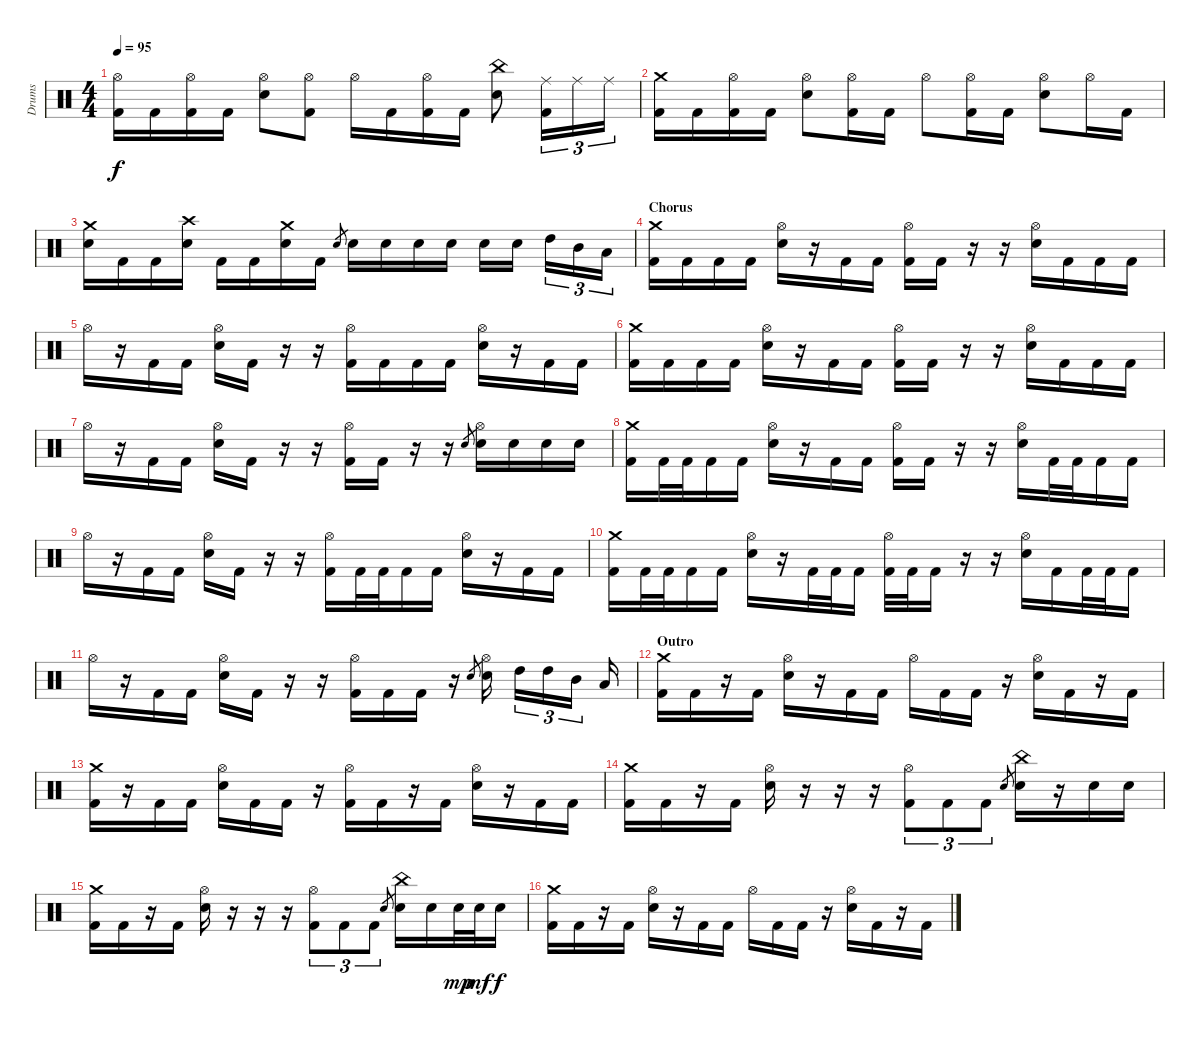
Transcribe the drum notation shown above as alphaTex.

\track ("Drums" "Drums") {instrument percussion}
\staff {score}
\articulation defaults
\ts (4 4)
\tempo 95
\clef neutral
\ks c
("Hi-Hat (open)" "Kick (hit) 2").16{dy f} "Kick (hit) 2".16 ("Hi-Hat (open)" "Kick (hit) 2").16 "Kick (hit) 2".16 ("Hi-Hat (open)" "Snare (hit) 2").8 ("Hi-Hat (open)" "Kick (hit) 2").8 "Hi-Hat (open)".16 "Kick (hit) 2".16 ("Hi-Hat (open)" "Kick (hit) 2").16 "Kick (hit) 2".16 ("China (hit)" "Snare (hit) 2").8 ("Ride (middle)" "Kick (hit) 2").16{tu (3 2)} "Ride (middle)".16{tu (3 2)} "Ride (middle)".16{tu (3 2)} |
("Crash medium (hit)" "Kick (hit) 2").16 "Kick (hit) 2".16 ("Hi-Hat (open)" "Kick (hit) 2").16 "Kick (hit) 2".16 ("Hi-Hat (open)" "Snare (hit) 2").8 ("Hi-Hat (open)" "Kick (hit) 2").16 "Kick (hit) 2".16 "Hi-Hat (open)".8 ("Hi-Hat (open)" "Kick (hit) 2").16 "Kick (hit) 2".16 ("Hi-Hat (open)" "Snare (hit) 2").8 "Hi-Hat (open)".16 "Kick (hit) 2".16 |
("Crash medium (hit)" "Snare (hit) 2").16 "Kick (hit) 2".16 "Kick (hit) 2".16 ("Crash high (hit)" "Snare (hit) 2").16 "Kick (hit) 2".16 "Kick (hit) 2".16 ("Crash medium (hit)" "Snare (hit) 2").16 "Kick (hit) 2".16 "Snare (hit) 2".8{gr} "Snare (hit) 2".16 "Snare (hit) 2".16 "Snare (hit) 2".16 "Snare (hit) 2".16 "Snare (hit) 2".16 "Snare (hit) 2".16 "High Tom (hit)".16{tu (3 2)} "Mid Tom (hit)".16{tu (3 2)} "Low Tom (hit)".16{tu (3 2)} |
\section ("" "Chorus")
("Crash medium (hit)" "Kick (hit) 2").16 "Kick (hit) 2".16 "Kick (hit) 2".16 "Kick (hit) 2".16 ("Hi-Hat (open)" "Snare (hit) 2").16 r.16 "Kick (hit) 2".16 "Kick (hit) 2".16 ("Hi-Hat (open)" "Kick (hit) 2").16 "Kick (hit) 2".16 r.16 r.16 ("Hi-Hat (open)" "Snare (hit) 2").16 "Kick (hit) 2".16 "Kick (hit) 2".16 "Kick (hit) 2".16 |
"Hi-Hat (open)".16 r.16 "Kick (hit) 2".16 "Kick (hit) 2".16 ("Hi-Hat (open)" "Snare (hit) 2").16 "Kick (hit) 2".16 r.16 r.16 ("Hi-Hat (open)" "Kick (hit) 2").16 "Kick (hit) 2".16 "Kick (hit) 2".16 "Kick (hit) 2".16 ("Hi-Hat (open)" "Snare (hit) 2").16 r.16 "Kick (hit) 2".16 "Kick (hit) 2".16 |
("Crash medium (hit)" "Kick (hit) 2").16 "Kick (hit) 2".16 "Kick (hit) 2".16 "Kick (hit) 2".16 ("Hi-Hat (open)" "Snare (hit) 2").16 r.16 "Kick (hit) 2".16 "Kick (hit) 2".16 ("Hi-Hat (open)" "Kick (hit) 2").16 "Kick (hit) 2".16 r.16 r.16 ("Hi-Hat (open)" "Snare (hit) 2").16 "Kick (hit) 2".16 "Kick (hit) 2".16 "Kick (hit) 2".16 |
"Hi-Hat (open)".16 r.16 "Kick (hit) 2".16 "Kick (hit) 2".16 ("Hi-Hat (open)" "Snare (hit) 2").16 "Kick (hit) 2".16 r.16 r.16 ("Hi-Hat (open)" "Kick (hit) 2").16 "Kick (hit) 2".16 r.16 r.16 "Snare (hit) 2".8{gr} ("Hi-Hat (open)" "Snare (hit) 2").16 "Snare (hit) 2".16 "Snare (hit) 2".16 "Snare (hit) 2".16 |
("Crash medium (hit)" "Kick (hit) 2").16 "Kick (hit) 2".32 "Kick (hit) 2".32 "Kick (hit) 2".16 "Kick (hit) 2".16 ("Hi-Hat (open)" "Snare (hit) 2").16 r.16 "Kick (hit) 2".16 "Kick (hit) 2".16 ("Hi-Hat (open)" "Kick (hit) 2").16 "Kick (hit) 2".16 r.16 r.16 ("Hi-Hat (open)" "Snare (hit) 2").16 "Kick (hit) 2".32 "Kick (hit) 2".32 "Kick (hit) 2".16 "Kick (hit) 2".16 |
"Hi-Hat (open)".16 r.16 "Kick (hit) 2".16 "Kick (hit) 2".16 ("Hi-Hat (open)" "Snare (hit) 2").16 "Kick (hit) 2".16 r.16 r.16 ("Hi-Hat (open)" "Kick (hit) 2").16 "Kick (hit) 2".32 "Kick (hit) 2".32 "Kick (hit) 2".16 "Kick (hit) 2".16 ("Hi-Hat (open)" "Snare (hit) 2").16 r.16 "Kick (hit) 2".16 "Kick (hit) 2".16 |
("Crash medium (hit)" "Kick (hit) 2").16 "Kick (hit) 2".32 "Kick (hit) 2".32 "Kick (hit) 2".16 "Kick (hit) 2".16 ("Hi-Hat (open)" "Snare (hit) 2").16 r.16 "Kick (hit) 2".32 "Kick (hit) 2".32 "Kick (hit) 2".16 ("Hi-Hat (open)" "Kick (hit) 2").32 "Kick (hit) 2".32 "Kick (hit) 2".16 r.16 r.16 ("Hi-Hat (open)" "Snare (hit) 2").16 "Kick (hit) 2".16 "Kick (hit) 2".32 "Kick (hit) 2".32 "Kick (hit) 2".16 |
"Hi-Hat (open)".16 r.16 "Kick (hit) 2".16 "Kick (hit) 2".16 ("Hi-Hat (open)" "Snare (hit) 2").16 "Kick (hit) 2".16 r.16 r.16 ("Hi-Hat (open)" "Kick (hit) 2").16 "Kick (hit) 2".16 "Kick (hit) 2".16 r.16 "Snare (hit) 2".8{gr} ("Hi-Hat (open)" "Snare (hit) 2").16 "High Tom (hit)".16{tu (3 2)} "High Tom (hit)".16{tu (3 2)} "Mid Tom (hit)".16{tu (3 2)} "Low Tom (hit)".16 |
\section ("" "Outro")
("Crash medium (hit)" "Kick (hit) 2").16 "Kick (hit) 2".16 r.16 "Kick (hit) 2".16 ("Hi-Hat (open)" "Snare (hit) 2").16 r.16 "Kick (hit) 2".16 "Kick (hit) 2".16 "Hi-Hat (open)".16 "Kick (hit) 2".16 "Kick (hit) 2".16 r.16 ("Hi-Hat (open)" "Snare (hit) 2").16 "Kick (hit) 2".16 r.16 "Kick (hit) 2".16 |
("Crash medium (hit)" "Kick (hit) 2").16 r.16 "Kick (hit) 2".16 "Kick (hit) 2".16 ("Hi-Hat (open)" "Snare (hit) 2").16 "Kick (hit) 2".16 "Kick (hit) 2".16 r.16 ("Hi-Hat (open)" "Kick (hit) 2").16 "Kick (hit) 2".16 r.16 "Kick (hit) 2".16 ("Hi-Hat (open)" "Snare (hit) 2").16 r.16 "Kick (hit) 2".16 "Kick (hit) 2".16 |
("Crash medium (hit)" "Kick (hit) 2").16 "Kick (hit) 2".16 r.16 "Kick (hit) 2".16 ("Hi-Hat (open)" "Snare (hit) 2").16 r.16 r.16 r.16 ("Hi-Hat (open)" "Kick (hit) 2").8{tu (3 2)} "Kick (hit) 2".8{tu (3 2)} "Kick (hit) 2".8{tu (3 2)} "Snare (hit) 2".8{gr} ("China (hit)" "Snare (hit) 2").16 r.16 "Snare (hit) 2".16 "Snare (hit) 2".16 |
("Crash medium (hit)" "Kick (hit) 2").16 "Kick (hit) 2".16 r.16 "Kick (hit) 2".16 ("Hi-Hat (open)" "Snare (hit) 2").16 r.16 r.16 r.16 ("Hi-Hat (open)" "Kick (hit) 2").8{tu (3 2)} "Kick (hit) 2".8{tu (3 2)} "Kick (hit) 2".8{tu (3 2)} "Snare (hit) 2".8{gr} ("China (hit)" "Snare (hit) 2").16 "Snare (hit) 2".16 "Snare (hit) 2".32{dy mp} "Snare (hit) 2".32{dy mf} "Snare (hit) 2".16{dy f} |
("Crash medium (hit)" "Kick (hit) 2").16 "Kick (hit) 2".16 r.16 "Kick (hit) 2".16 ("Hi-Hat (open)" "Snare (hit) 2").16 r.16 "Kick (hit) 2".16 "Kick (hit) 2".16 "Hi-Hat (open)".16 "Kick (hit) 2".16 "Kick (hit) 2".16 r.16 ("Hi-Hat (open)" "Snare (hit) 2").16 "Kick (hit) 2".16 r.16 "Kick (hit) 2".16
